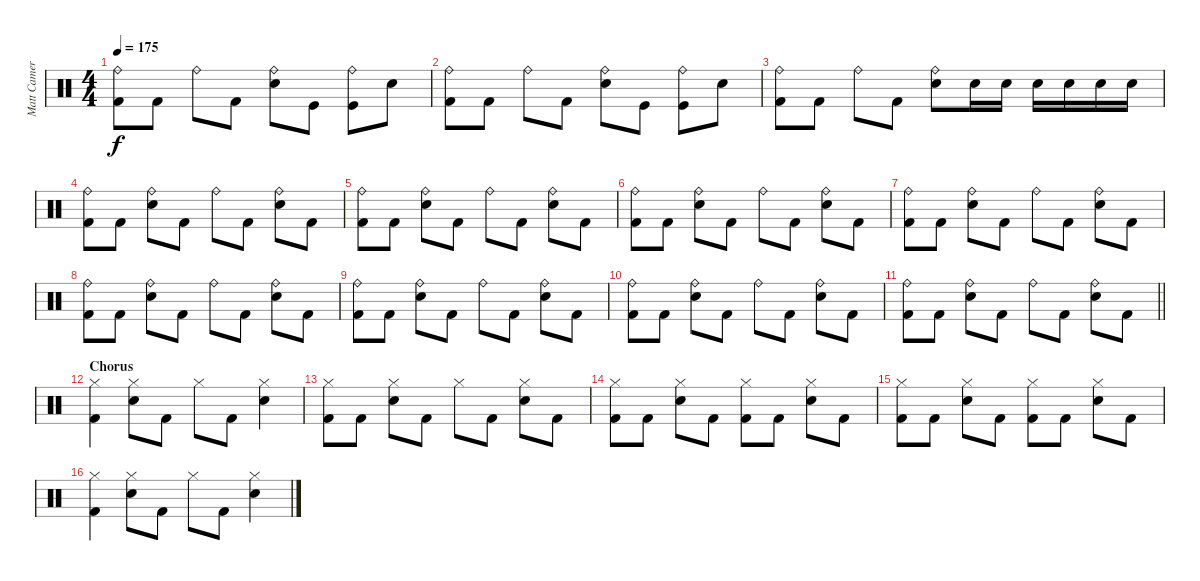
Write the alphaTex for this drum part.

\track ("Matt Cameron" "Matt Camer") {instrument percussion}
\staff {score}
\articulation defaults
\ts (4 4)
\tempo 175
\clef neutral
\ks c
("Ride (bell)" "Kick (hit) 2").8{dy f} "Kick (hit) 2".8 "Ride (bell)".8 "Kick (hit) 2".8 ("Ride (bell)" "Electric Snare (hit)").8 "Kick (hit)".8 ("Ride (bell)" "Kick (hit)").8 "Electric Snare (hit)".8 |
("Ride (bell)" "Kick (hit) 2").8 "Kick (hit) 2".8 "Ride (bell)".8 "Kick (hit) 2".8 ("Ride (bell)" "Electric Snare (hit)").8 "Kick (hit)".8 ("Ride (bell)" "Kick (hit)").8 "Electric Snare (hit)".8 |
("Ride (bell)" "Kick (hit) 2").8 "Kick (hit) 2".8 "Ride (bell)".8 "Kick (hit) 2".8 ("Ride (bell)" "Electric Snare (hit)").8 "Electric Snare (hit)".16 "Electric Snare (hit)".16 "Electric Snare (hit)".16 "Electric Snare (hit)".16 "Electric Snare (hit)".16 "Electric Snare (hit)".16 |
("Ride (bell)" "Kick (hit) 2").8 "Kick (hit) 2".8 ("Ride (bell)" "Electric Snare (hit)").8 "Kick (hit) 2".8 "Ride (bell)".8 "Kick (hit) 2".8 ("Ride (bell)" "Electric Snare (hit)").8 "Kick (hit) 2".8 |
("Ride (bell)" "Kick (hit) 2").8 "Kick (hit) 2".8 ("Ride (bell)" "Electric Snare (hit)").8 "Kick (hit) 2".8 "Ride (bell)".8 "Kick (hit) 2".8 ("Ride (bell)" "Electric Snare (hit)").8 "Kick (hit) 2".8 |
("Ride (bell)" "Kick (hit) 2").8 "Kick (hit) 2".8 ("Ride (bell)" "Electric Snare (hit)").8 "Kick (hit) 2".8 "Ride (bell)".8 "Kick (hit) 2".8 ("Ride (bell)" "Electric Snare (hit)").8 "Kick (hit) 2".8 |
("Ride (bell)" "Kick (hit) 2").8 "Kick (hit) 2".8 ("Ride (bell)" "Electric Snare (hit)").8 "Kick (hit) 2".8 "Ride (bell)".8 "Kick (hit) 2".8 ("Ride (bell)" "Electric Snare (hit)").8 "Kick (hit) 2".8 |
("Ride (bell)" "Kick (hit) 2").8 "Kick (hit) 2".8 ("Ride (bell)" "Electric Snare (hit)").8 "Kick (hit) 2".8 "Ride (bell)".8 "Kick (hit) 2".8 ("Ride (bell)" "Electric Snare (hit)").8 "Kick (hit) 2".8 |
("Ride (bell)" "Kick (hit) 2").8 "Kick (hit) 2".8 ("Ride (bell)" "Electric Snare (hit)").8 "Kick (hit) 2".8 "Ride (bell)".8 "Kick (hit) 2".8 ("Ride (bell)" "Electric Snare (hit)").8 "Kick (hit) 2".8 |
("Ride (bell)" "Kick (hit) 2").8 "Kick (hit) 2".8 ("Ride (bell)" "Electric Snare (hit)").8 "Kick (hit) 2".8 "Ride (bell)".8 "Kick (hit) 2".8 ("Ride (bell)" "Electric Snare (hit)").8 "Kick (hit) 2".8 |
\barLineRight lightlight
("Ride (bell)" "Kick (hit) 2").8 "Kick (hit) 2".8 ("Ride (bell)" "Electric Snare (hit)").8 "Kick (hit) 2".8 "Ride (bell)".8 "Kick (hit) 2".8 ("Ride (bell)" "Electric Snare (hit)").8 "Kick (hit) 2".8 |
\section ("" "Chorus")
("Hi-Hat (closed)" "Kick (hit) 2").4 ("Hi-Hat (closed)" "Electric Snare (hit)").8 "Kick (hit) 2".8 "Hi-Hat (closed)".8 "Kick (hit) 2".8 ("Hi-Hat (closed)" "Electric Snare (hit)").4 |
("Hi-Hat (closed)" "Kick (hit) 2").8 "Kick (hit) 2".8 ("Hi-Hat (closed)" "Electric Snare (hit)").8 "Kick (hit) 2".8 "Hi-Hat (closed)".8 "Kick (hit) 2".8 ("Hi-Hat (closed)" "Electric Snare (hit)").8 "Kick (hit) 2".8 |
("Hi-Hat (closed)" "Kick (hit) 2").8 "Kick (hit) 2".8 ("Hi-Hat (closed)" "Electric Snare (hit)").8 "Kick (hit) 2".8 ("Hi-Hat (closed)" "Kick (hit) 2").8 "Kick (hit) 2".8 ("Hi-Hat (closed)" "Electric Snare (hit)").8 "Kick (hit) 2".8 |
("Hi-Hat (closed)" "Kick (hit) 2").8 "Kick (hit) 2".8 ("Hi-Hat (closed)" "Electric Snare (hit)").8 "Kick (hit) 2".8 ("Hi-Hat (closed)" "Kick (hit) 2").8 "Kick (hit) 2".8 ("Hi-Hat (closed)" "Electric Snare (hit)").8 "Kick (hit) 2".8 |
("Hi-Hat (closed)" "Kick (hit) 2").4 ("Hi-Hat (closed)" "Electric Snare (hit)").8 "Kick (hit) 2".8 "Hi-Hat (closed)".8 "Kick (hit) 2".8 ("Hi-Hat (closed)" "Electric Snare (hit)").4
